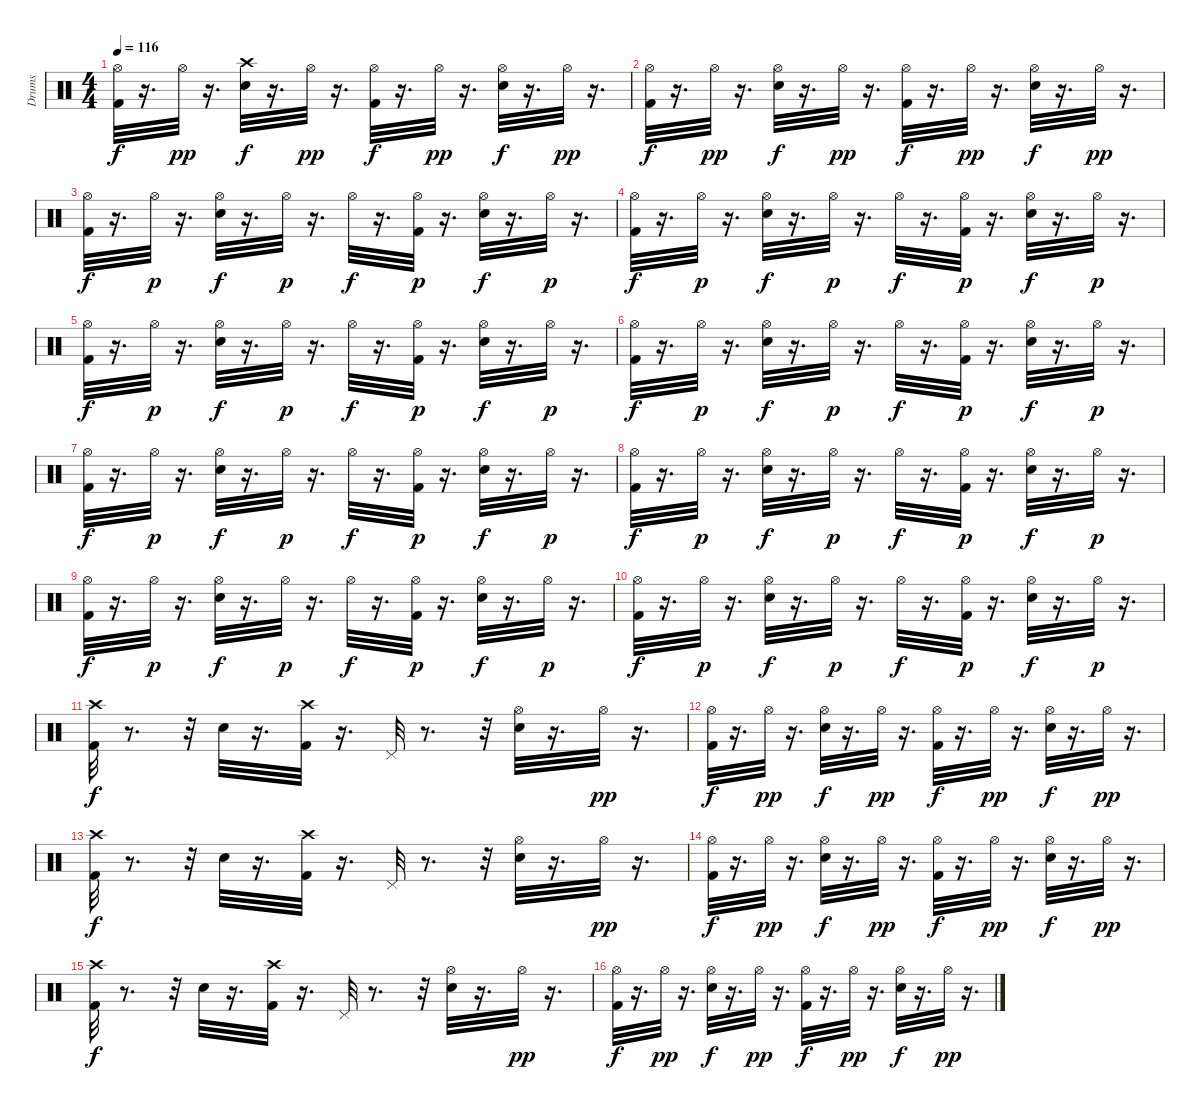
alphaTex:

\track ("Drums" "Drums") {instrument percussion}
\staff {score}
\articulation defaults
\ts (4 4)
\tempo 116
\clef neutral
\ks c
("Kick (hit) 2" "Hi-Hat (open)").32{dy f} r.16{d} "Hi-Hat (open)".32{dy pp} r.16{d} ("Crash high (hit)" "Electric Snare (hit)").32{dy f} r.16{d} "Hi-Hat (open)".32{dy pp} r.16{d} ("Kick (hit) 2" "Hi-Hat (open)").32{dy f} r.16{d} "Hi-Hat (open)".32{dy pp} r.16{d} ("Hi-Hat (open)" "Electric Snare (hit)").32{dy f} r.16{d} "Hi-Hat (open)".32{dy pp} r.16{d} |
("Kick (hit) 2" "Hi-Hat (open)").32{dy f} r.16{d} "Hi-Hat (open)".32{dy pp} r.16{d} ("Electric Snare (hit)" "Hi-Hat (open)").32{dy f} r.16{d} "Hi-Hat (open)".32{dy pp} r.16{d} ("Kick (hit) 2" "Hi-Hat (open)").32{dy f} r.16{d} "Hi-Hat (open)".32{dy pp} r.16{d} ("Electric Snare (hit)" "Hi-Hat (open)").32{dy f} r.16{d} "Hi-Hat (open)".32{dy pp} r.16{d} |
("Hi-Hat (open)" "Kick (hit) 2").32{dy f} r.16{d} "Hi-Hat (open)".32{dy p} r.16{d} ("Hi-Hat (open)" "Electric Snare (hit)").32{dy f} r.16{d} "Hi-Hat (open)".32{dy p} r.16{d} "Hi-Hat (open)".32{dy f} r.16{d} ("Hi-Hat (open)" "Kick (hit) 2").32{dy p} r.16{d} ("Hi-Hat (open)" "Electric Snare (hit)").32{dy f} r.16{d} "Hi-Hat (open)".32{dy p} r.16{d} |
("Hi-Hat (open)" "Kick (hit) 2").32{dy f} r.16{d} "Hi-Hat (open)".32{dy p} r.16{d} ("Hi-Hat (open)" "Electric Snare (hit)").32{dy f} r.16{d} "Hi-Hat (open)".32{dy p} r.16{d} "Hi-Hat (open)".32{dy f} r.16{d} ("Hi-Hat (open)" "Kick (hit) 2").32{dy p} r.16{d} ("Hi-Hat (open)" "Electric Snare (hit)").32{dy f} r.16{d} "Hi-Hat (open)".32{dy p} r.16{d} |
("Hi-Hat (open)" "Kick (hit) 2").32{dy f} r.16{d} "Hi-Hat (open)".32{dy p} r.16{d} ("Hi-Hat (open)" "Electric Snare (hit)").32{dy f} r.16{d} "Hi-Hat (open)".32{dy p} r.16{d} "Hi-Hat (open)".32{dy f} r.16{d} ("Hi-Hat (open)" "Kick (hit) 2").32{dy p} r.16{d} ("Hi-Hat (open)" "Electric Snare (hit)").32{dy f} r.16{d} "Hi-Hat (open)".32{dy p} r.16{d} |
("Hi-Hat (open)" "Kick (hit) 2").32{dy f} r.16{d} "Hi-Hat (open)".32{dy p} r.16{d} ("Hi-Hat (open)" "Electric Snare (hit)").32{dy f} r.16{d} "Hi-Hat (open)".32{dy p} r.16{d} "Hi-Hat (open)".32{dy f} r.16{d} ("Hi-Hat (open)" "Kick (hit) 2").32{dy p} r.16{d} ("Hi-Hat (open)" "Electric Snare (hit)").32{dy f} r.16{d} "Hi-Hat (open)".32{dy p} r.16{d} |
("Hi-Hat (open)" "Kick (hit) 2").32{dy f} r.16{d} "Hi-Hat (open)".32{dy p} r.16{d} ("Hi-Hat (open)" "Electric Snare (hit)").32{dy f} r.16{d} "Hi-Hat (open)".32{dy p} r.16{d} "Hi-Hat (open)".32{dy f} r.16{d} ("Hi-Hat (open)" "Kick (hit) 2").32{dy p} r.16{d} ("Hi-Hat (open)" "Electric Snare (hit)").32{dy f} r.16{d} "Hi-Hat (open)".32{dy p} r.16{d} |
("Hi-Hat (open)" "Kick (hit) 2").32{dy f} r.16{d} "Hi-Hat (open)".32{dy p} r.16{d} ("Hi-Hat (open)" "Electric Snare (hit)").32{dy f} r.16{d} "Hi-Hat (open)".32{dy p} r.16{d} "Hi-Hat (open)".32{dy f} r.16{d} ("Hi-Hat (open)" "Kick (hit) 2").32{dy p} r.16{d} ("Hi-Hat (open)" "Electric Snare (hit)").32{dy f} r.16{d} "Hi-Hat (open)".32{dy p} r.16{d} |
("Hi-Hat (open)" "Kick (hit) 2").32{dy f} r.16{d} "Hi-Hat (open)".32{dy p} r.16{d} ("Hi-Hat (open)" "Electric Snare (hit)").32{dy f} r.16{d} "Hi-Hat (open)".32{dy p} r.16{d} "Hi-Hat (open)".32{dy f} r.16{d} ("Hi-Hat (open)" "Kick (hit) 2").32{dy p} r.16{d} ("Hi-Hat (open)" "Electric Snare (hit)").32{dy f} r.16{d} "Hi-Hat (open)".32{dy p} r.16{d} |
("Hi-Hat (open)" "Kick (hit) 2").32{dy f} r.16{d} "Hi-Hat (open)".32{dy p} r.16{d} ("Hi-Hat (open)" "Electric Snare (hit)").32{dy f} r.16{d} "Hi-Hat (open)".32{dy p} r.16{d} "Hi-Hat (open)".32{dy f} r.16{d} ("Hi-Hat (open)" "Kick (hit) 2").32{dy p} r.16{d} ("Hi-Hat (open)" "Electric Snare (hit)").32{dy f} r.16{d} "Hi-Hat (open)".32{dy p} r.16{d} |
("Crash high (hit)" "Kick (hit) 2").32{dy f} r.8{d} r.32 "Electric Snare (hit)".32 r.16{d} ("Crash high (hit)" "Kick (hit) 2").32 r.16{d} "Pedal Hi-Hat (hit)".32 r.8{d} r.32 ("Electric Snare (hit)" "Hi-Hat (open)").32 r.16{d} "Hi-Hat (open)".32{dy pp} r.16{d} |
("Kick (hit) 2" "Hi-Hat (open)").32{dy f} r.16{d} "Hi-Hat (open)".32{dy pp} r.16{d} ("Electric Snare (hit)" "Hi-Hat (open)").32{dy f} r.16{d} "Hi-Hat (open)".32{dy pp} r.16{d} ("Kick (hit) 2" "Hi-Hat (open)").32{dy f} r.16{d} "Hi-Hat (open)".32{dy pp} r.16{d} ("Electric Snare (hit)" "Hi-Hat (open)").32{dy f} r.16{d} "Hi-Hat (open)".32{dy pp} r.16{d} |
("Crash high (hit)" "Kick (hit) 2").32{dy f} r.8{d} r.32 "Electric Snare (hit)".32 r.16{d} ("Crash high (hit)" "Kick (hit) 2").32 r.16{d} "Pedal Hi-Hat (hit)".32 r.8{d} r.32 ("Electric Snare (hit)" "Hi-Hat (open)").32 r.16{d} "Hi-Hat (open)".32{dy pp} r.16{d} |
("Kick (hit) 2" "Hi-Hat (open)").32{dy f} r.16{d} "Hi-Hat (open)".32{dy pp} r.16{d} ("Electric Snare (hit)" "Hi-Hat (open)").32{dy f} r.16{d} "Hi-Hat (open)".32{dy pp} r.16{d} ("Kick (hit) 2" "Hi-Hat (open)").32{dy f} r.16{d} "Hi-Hat (open)".32{dy pp} r.16{d} ("Electric Snare (hit)" "Hi-Hat (open)").32{dy f} r.16{d} "Hi-Hat (open)".32{dy pp} r.16{d} |
("Crash high (hit)" "Kick (hit) 2").32{dy f} r.8{d} r.32 "Electric Snare (hit)".32 r.16{d} ("Crash high (hit)" "Kick (hit) 2").32 r.16{d} "Pedal Hi-Hat (hit)".32 r.8{d} r.32 ("Electric Snare (hit)" "Hi-Hat (open)").32 r.16{d} "Hi-Hat (open)".32{dy pp} r.16{d} |
("Kick (hit) 2" "Hi-Hat (open)").32{dy f} r.16{d} "Hi-Hat (open)".32{dy pp} r.16{d} ("Electric Snare (hit)" "Hi-Hat (open)").32{dy f} r.16{d} "Hi-Hat (open)".32{dy pp} r.16{d} ("Kick (hit) 2" "Hi-Hat (open)").32{dy f} r.16{d} "Hi-Hat (open)".32{dy pp} r.16{d} ("Electric Snare (hit)" "Hi-Hat (open)").32{dy f} r.16{d} "Hi-Hat (open)".32{dy pp} r.16{d}
